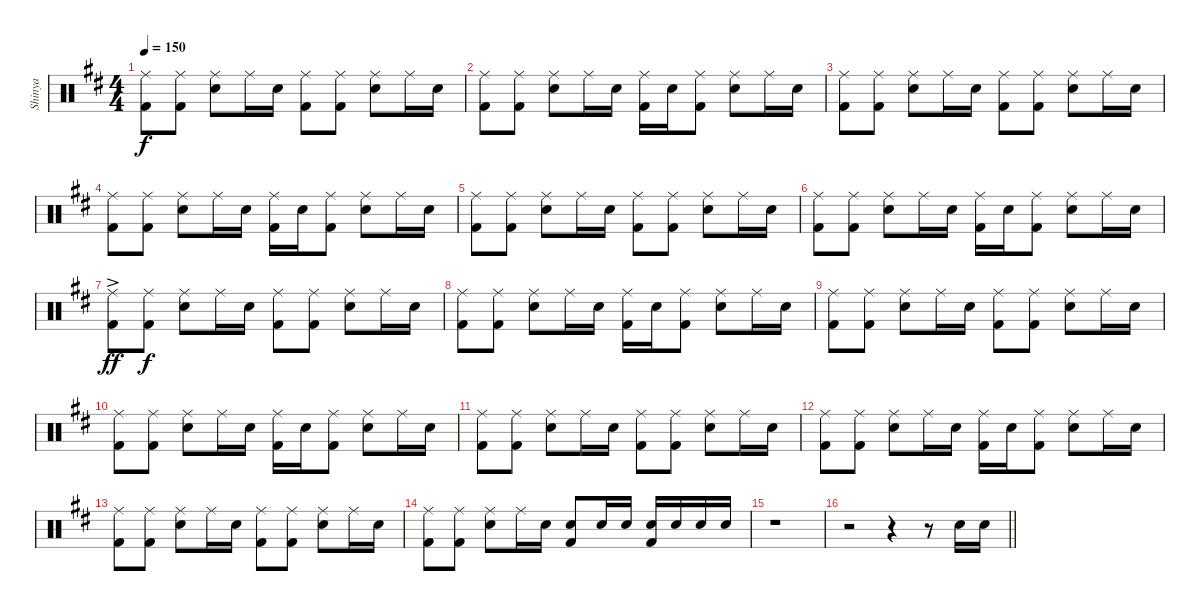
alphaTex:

\track ("Shinya" "Shinya") {instrument percussion}
\staff {score}
\articulation defaults
\ts (4 4)
\tempo 150
\clef neutral
\ks d
("Ride (middle)" "Kick (hit) 2").8{dy f} ("Ride (middle)" "Kick (hit) 2").8 ("Ride (middle)" "Snare (hit) 2").8 "Ride (middle)".16 "Snare (hit) 2".16 ("Ride (middle)" "Kick (hit) 2").8 ("Ride (middle)" "Kick (hit) 2").8 ("Ride (middle)" "Snare (hit) 2").8 "Ride (middle)".16 "Snare (hit) 2".16 |
("Ride (middle)" "Kick (hit) 2").8 ("Ride (middle)" "Kick (hit) 2").8 ("Ride (middle)" "Snare (hit) 2").8 "Ride (middle)".16 "Snare (hit) 2".16 ("Ride (middle)" "Kick (hit) 2").16 "Snare (hit) 2".16 ("Ride (middle)" "Kick (hit) 2").8 ("Ride (middle)" "Snare (hit) 2").8 "Ride (middle)".16 "Snare (hit) 2".16 |
("Ride (middle)" "Kick (hit) 2").8 ("Ride (middle)" "Kick (hit) 2").8 ("Ride (middle)" "Snare (hit) 2").8 "Ride (middle)".16 "Snare (hit) 2".16 ("Ride (middle)" "Kick (hit) 2").8 ("Ride (middle)" "Kick (hit) 2").8 ("Ride (middle)" "Snare (hit) 2").8 "Ride (middle)".16 "Snare (hit) 2".16 |
("Ride (middle)" "Kick (hit) 2").8 ("Ride (middle)" "Kick (hit) 2").8 ("Ride (middle)" "Snare (hit) 2").8 "Ride (middle)".16 "Snare (hit) 2".16 ("Ride (middle)" "Kick (hit) 2").16 "Snare (hit) 2".16 ("Ride (middle)" "Kick (hit) 2").8 ("Ride (middle)" "Snare (hit) 2").8 "Ride (middle)".16 "Snare (hit) 2".16 |
("Ride (middle)" "Kick (hit) 2").8 ("Ride (middle)" "Kick (hit) 2").8 ("Ride (middle)" "Snare (hit) 2").8 "Ride (middle)".16 "Snare (hit) 2".16 ("Ride (middle)" "Kick (hit) 2").8 ("Ride (middle)" "Kick (hit) 2").8 ("Ride (middle)" "Snare (hit) 2").8 "Ride (middle)".16 "Snare (hit) 2".16 |
("Ride (middle)" "Kick (hit) 2").8 ("Ride (middle)" "Kick (hit) 2").8 ("Ride (middle)" "Snare (hit) 2").8 "Ride (middle)".16 "Snare (hit) 2".16 ("Ride (middle)" "Kick (hit) 2").16 "Snare (hit) 2".16 ("Ride (middle)" "Kick (hit) 2").8 ("Ride (middle)" "Snare (hit) 2").8 "Ride (middle)".16 "Snare (hit) 2".16 |
("Ride (middle)"{ac} "Kick (hit) 2").8{dy ff} ("Ride (middle)" "Kick (hit) 2").8{dy f} ("Ride (middle)" "Snare (hit) 2").8 "Ride (middle)".16 "Snare (hit) 2".16 ("Ride (middle)" "Kick (hit) 2").8 ("Ride (middle)" "Kick (hit) 2").8 ("Ride (middle)" "Snare (hit) 2").8 "Ride (middle)".16 "Snare (hit) 2".16 |
("Ride (middle)" "Kick (hit) 2").8 ("Ride (middle)" "Kick (hit) 2").8 ("Ride (middle)" "Snare (hit) 2").8 "Ride (middle)".16 "Snare (hit) 2".16 ("Ride (middle)" "Kick (hit) 2").16 "Snare (hit) 2".16 ("Ride (middle)" "Kick (hit) 2").8 ("Ride (middle)" "Snare (hit) 2").8 "Ride (middle)".16 "Snare (hit) 2".16 |
("Ride (middle)" "Kick (hit) 2").8 ("Ride (middle)" "Kick (hit) 2").8 ("Ride (middle)" "Snare (hit) 2").8 "Ride (middle)".16 "Snare (hit) 2".16 ("Ride (middle)" "Kick (hit) 2").8 ("Ride (middle)" "Kick (hit) 2").8 ("Ride (middle)" "Snare (hit) 2").8 "Ride (middle)".16 "Snare (hit) 2".16 |
("Ride (middle)" "Kick (hit) 2").8 ("Ride (middle)" "Kick (hit) 2").8 ("Ride (middle)" "Snare (hit) 2").8 "Ride (middle)".16 "Snare (hit) 2".16 ("Ride (middle)" "Kick (hit) 2").16 "Snare (hit) 2".16 ("Ride (middle)" "Kick (hit) 2").8 ("Ride (middle)" "Snare (hit) 2").8 "Ride (middle)".16 "Snare (hit) 2".16 |
("Ride (middle)" "Kick (hit) 2").8 ("Ride (middle)" "Kick (hit) 2").8 ("Ride (middle)" "Snare (hit) 2").8 "Ride (middle)".16 "Snare (hit) 2".16 ("Ride (middle)" "Kick (hit) 2").8 ("Ride (middle)" "Kick (hit) 2").8 ("Ride (middle)" "Snare (hit) 2").8 "Ride (middle)".16 "Snare (hit) 2".16 |
("Ride (middle)" "Kick (hit) 2").8 ("Ride (middle)" "Kick (hit) 2").8 ("Ride (middle)" "Snare (hit) 2").8 "Ride (middle)".16 "Snare (hit) 2".16 ("Ride (middle)" "Kick (hit) 2").16 "Snare (hit) 2".16 ("Ride (middle)" "Kick (hit) 2").8 ("Ride (middle)" "Snare (hit) 2").8 "Ride (middle)".16 "Snare (hit) 2".16 |
("Ride (middle)" "Kick (hit) 2").8 ("Ride (middle)" "Kick (hit) 2").8 ("Ride (middle)" "Snare (hit) 2").8 "Ride (middle)".16 "Snare (hit) 2".16 ("Ride (middle)" "Kick (hit) 2").8 ("Ride (middle)" "Kick (hit) 2").8 ("Ride (middle)" "Snare (hit) 2").8 "Ride (middle)".16 "Snare (hit) 2".16 |
("Ride (middle)" "Kick (hit) 2").8 ("Ride (middle)" "Kick (hit) 2").8 ("Ride (middle)" "Snare (hit) 2").8 "Ride (middle)".16 "Snare (hit) 2".16 ("Snare (hit) 2" "Kick (hit) 2").8 "Snare (hit) 2".16 "Snare (hit) 2".16 ("Snare (hit) 2" "Kick (hit) 2").16 "Snare (hit) 2".16 "Snare (hit) 2".16 "Snare (hit) 2".16 |
r.1 |
\barLineRight lightlight
r.2 r.4 r.8 "Snare (hit) 2".16 "Snare (hit) 2".16
